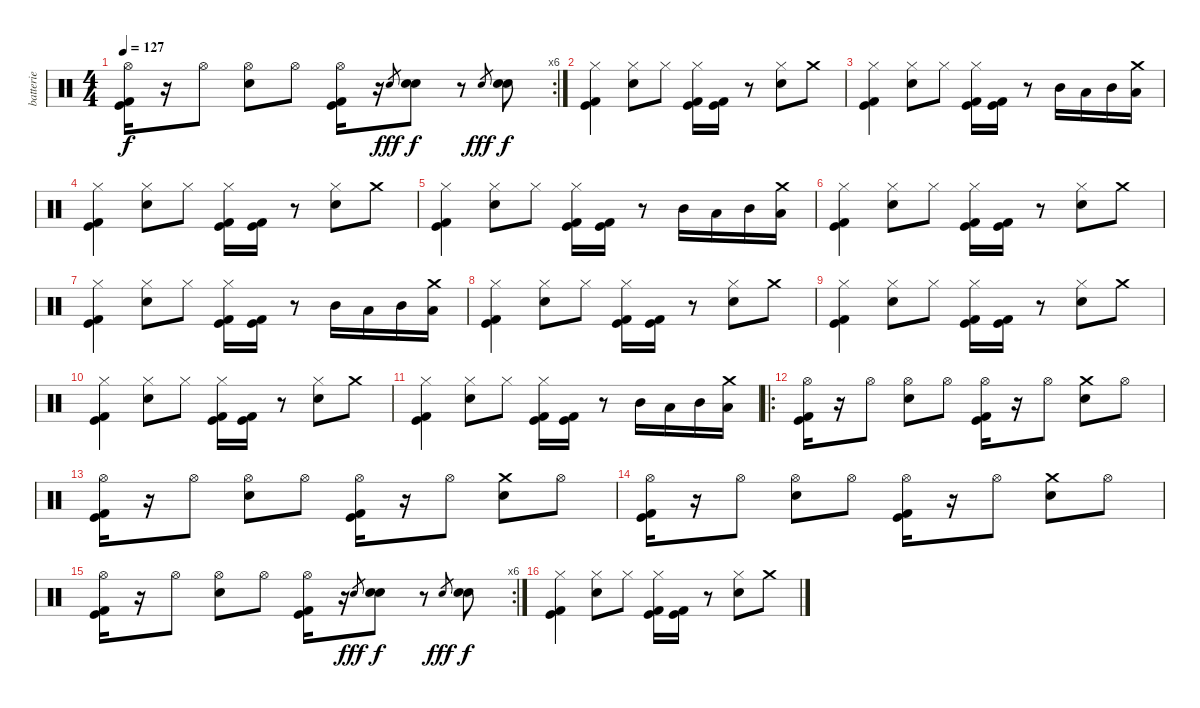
\track ("batterie" "batterie") {instrument percussion}
\staff {score}
\articulation defaults
\rc 6
\ts (4 4)
\tempo 127
\clef neutral
\ks c
("Hi-Hat (open)" "Kick (hit) 2" "Kick (hit)").16{dy f} r.16 "Hi-Hat (open)".8 ("Hi-Hat (open)" "Electric Snare (hit)").8 "Hi-Hat (open)".8 ("Hi-Hat (open)" "Kick (hit) 2" "Kick (hit)").16 r.16 "Electric Snare (hit)"{h}.8{gr dy fff} ("Electric Snare (hit)" "Electric Snare (hit)").8{dy f} r.8 "Electric Snare (hit)".8{gr dy fff} ("Electric Snare (hit)" "Electric Snare (hit)").8{dy f} |
("Hi-Hat (closed)" "Kick (hit) 2" "Kick (hit)").4 ("Hi-Hat (closed)" "Electric Snare (hit)").8 "Hi-Hat (closed)".8 ("Hi-Hat (closed)" "Kick (hit) 2" "Kick (hit)").16 ("Kick (hit) 2" "Kick (hit)").16 r.8 ("Hi-Hat (closed)" "Electric Snare (hit)").8 "Crash medium (hit)".8 |
("Hi-Hat (closed)" "Kick (hit) 2" "Kick (hit)").4 ("Hi-Hat (closed)" "Electric Snare (hit)").8 "Hi-Hat (closed)".8 ("Hi-Hat (closed)" "Kick (hit) 2" "Kick (hit)").16 ("Kick (hit) 2" "Kick (hit)").16 r.8 "Mid Tom (hit)".16 "Low Tom (hit)".16 "Mid Tom (hit)".16 ("Crash medium (hit)" "Low Tom (hit)").16 |
("Hi-Hat (closed)" "Kick (hit) 2" "Kick (hit)").4 ("Hi-Hat (closed)" "Electric Snare (hit)").8 "Hi-Hat (closed)".8 ("Hi-Hat (closed)" "Kick (hit) 2" "Kick (hit)").16 ("Kick (hit) 2" "Kick (hit)").16 r.8 ("Hi-Hat (closed)" "Electric Snare (hit)").8 "Crash medium (hit)".8 |
("Hi-Hat (closed)" "Kick (hit) 2" "Kick (hit)").4 ("Hi-Hat (closed)" "Electric Snare (hit)").8 "Hi-Hat (closed)".8 ("Hi-Hat (closed)" "Kick (hit) 2" "Kick (hit)").16 ("Kick (hit) 2" "Kick (hit)").16 r.8 "Mid Tom (hit)".16 "Low Tom (hit)".16 "Mid Tom (hit)".16 ("Crash medium (hit)" "Low Tom (hit)").16 |
("Hi-Hat (closed)" "Kick (hit) 2" "Kick (hit)").4 ("Hi-Hat (closed)" "Electric Snare (hit)").8 "Hi-Hat (closed)".8 ("Hi-Hat (closed)" "Kick (hit) 2" "Kick (hit)").16 ("Kick (hit) 2" "Kick (hit)").16 r.8 ("Hi-Hat (closed)" "Electric Snare (hit)").8 "Crash medium (hit)".8 |
("Hi-Hat (closed)" "Kick (hit) 2" "Kick (hit)").4 ("Hi-Hat (closed)" "Electric Snare (hit)").8 "Hi-Hat (closed)".8 ("Hi-Hat (closed)" "Kick (hit) 2" "Kick (hit)").16 ("Kick (hit) 2" "Kick (hit)").16 r.8 "Mid Tom (hit)".16 "Low Tom (hit)".16 "Mid Tom (hit)".16 ("Crash medium (hit)" "Low Tom (hit)").16 |
("Hi-Hat (closed)" "Kick (hit) 2" "Kick (hit)").4 ("Hi-Hat (closed)" "Electric Snare (hit)").8 "Hi-Hat (closed)".8 ("Hi-Hat (closed)" "Kick (hit) 2" "Kick (hit)").16 ("Kick (hit) 2" "Kick (hit)").16 r.8 ("Hi-Hat (closed)" "Electric Snare (hit)").8 "Crash medium (hit)".8 |
("Hi-Hat (closed)" "Kick (hit) 2" "Kick (hit)").4 ("Hi-Hat (closed)" "Electric Snare (hit)").8 "Hi-Hat (closed)".8 ("Hi-Hat (closed)" "Kick (hit) 2" "Kick (hit)").16 ("Kick (hit) 2" "Kick (hit)").16 r.8 ("Hi-Hat (closed)" "Electric Snare (hit)").8 "Crash medium (hit)".8 |
("Hi-Hat (closed)" "Kick (hit) 2" "Kick (hit)").4 ("Hi-Hat (closed)" "Electric Snare (hit)").8 "Hi-Hat (closed)".8 ("Hi-Hat (closed)" "Kick (hit) 2" "Kick (hit)").16 ("Kick (hit) 2" "Kick (hit)").16 r.8 ("Hi-Hat (closed)" "Electric Snare (hit)").8 "Crash medium (hit)".8 |
("Hi-Hat (closed)" "Kick (hit) 2" "Kick (hit)").4 ("Hi-Hat (closed)" "Electric Snare (hit)").8 "Hi-Hat (closed)".8 ("Hi-Hat (closed)" "Kick (hit) 2" "Kick (hit)").16 ("Kick (hit) 2" "Kick (hit)").16 r.8 "Mid Tom (hit)".16 "Low Tom (hit)".16 "Mid Tom (hit)".16 ("Crash medium (hit)" "Low Tom (hit)").16 |
\ro
("Hi-Hat (open)" "Kick (hit) 2" "Kick (hit)").16 r.16 "Hi-Hat (open)".8 ("Hi-Hat (open)" "Electric Snare (hit)").8 "Hi-Hat (open)".8 ("Hi-Hat (open)" "Kick (hit) 2" "Kick (hit)").16 r.16 "Hi-Hat (open)".8 ("Crash medium (hit)" "Electric Snare (hit)").8 "Hi-Hat (open)".8 |
("Hi-Hat (open)" "Kick (hit) 2" "Kick (hit)").16 r.16 "Hi-Hat (open)".8 ("Hi-Hat (open)" "Electric Snare (hit)").8 "Hi-Hat (open)".8 ("Hi-Hat (open)" "Kick (hit) 2" "Kick (hit)").16 r.16 "Hi-Hat (open)".8 ("Crash medium (hit)" "Electric Snare (hit)").8 "Hi-Hat (open)".8 |
("Hi-Hat (open)" "Kick (hit) 2" "Kick (hit)").16 r.16 "Hi-Hat (open)".8 ("Hi-Hat (open)" "Electric Snare (hit)").8 "Hi-Hat (open)".8 ("Hi-Hat (open)" "Kick (hit) 2" "Kick (hit)").16 r.16 "Hi-Hat (open)".8 ("Crash medium (hit)" "Electric Snare (hit)").8 "Hi-Hat (open)".8 |
\rc 6
("Hi-Hat (open)" "Kick (hit) 2" "Kick (hit)").16 r.16 "Hi-Hat (open)".8 ("Hi-Hat (open)" "Electric Snare (hit)").8 "Hi-Hat (open)".8 ("Hi-Hat (open)" "Kick (hit) 2" "Kick (hit)").16 r.16 "Electric Snare (hit)"{h}.8{gr dy fff} ("Electric Snare (hit)" "Electric Snare (hit)").8{dy f} r.8 "Electric Snare (hit)".8{gr dy fff} ("Electric Snare (hit)" "Electric Snare (hit)").8{dy f} |
("Hi-Hat (closed)" "Kick (hit) 2" "Kick (hit)").4 ("Hi-Hat (closed)" "Electric Snare (hit)").8 "Hi-Hat (closed)".8 ("Hi-Hat (closed)" "Kick (hit) 2" "Kick (hit)").16 ("Kick (hit) 2" "Kick (hit)").16 r.8 ("Hi-Hat (closed)" "Electric Snare (hit)").8 "Crash medium (hit)".8
